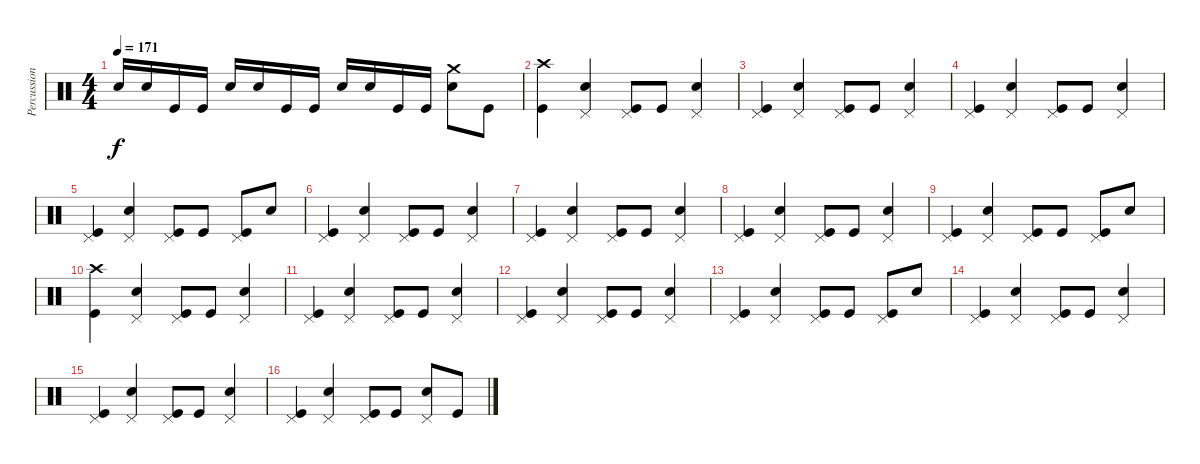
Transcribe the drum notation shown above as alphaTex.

\track ("Percussion" "Percussion") {instrument percussion}
\staff {score}
\articulation defaults
\ts (4 4)
\tempo 171
\clef neutral
\ks c "Electric Snare (hit)".16{dy f} "Electric Snare (hit)".16 "Kick (hit)".16 "Kick (hit)".16 "Electric Snare (hit)".16 "Electric Snare (hit)".16 "Kick (hit)".16 "Kick (hit)".16 "Electric Snare (hit)".16 "Electric Snare (hit)".16 "Kick (hit)".16 "Kick (hit)".16
("Crash medium (hit)" "Electric Snare (hit)").8 "Kick (hit)".8 |
("Crash high (hit)" "Kick (hit)").4 ("Pedal Hi-Hat (hit)" "Electric Snare (hit)").4 ("Pedal Hi-Hat (hit)" "Kick (hit)").8 "Kick (hit)".8 ("Pedal Hi-Hat (hit)" "Electric Snare (hit)").4 |
("Pedal Hi-Hat (hit)" "Kick (hit)").4 ("Pedal Hi-Hat (hit)" "Electric Snare (hit)").4 ("Pedal Hi-Hat (hit)" "Kick (hit)").8 "Kick (hit)".8 ("Pedal Hi-Hat (hit)" "Electric Snare (hit)").4 |
("Pedal Hi-Hat (hit)" "Kick (hit)").4 ("Pedal Hi-Hat (hit)" "Electric Snare (hit)").4 ("Pedal Hi-Hat (hit)" "Kick (hit)").8 "Kick (hit)".8 ("Pedal Hi-Hat (hit)" "Electric Snare (hit)").4 |
("Pedal Hi-Hat (hit)" "Kick (hit)").4 ("Pedal Hi-Hat (hit)" "Electric Snare (hit)").4 ("Pedal Hi-Hat (hit)" "Kick (hit)").8 "Kick (hit)".8 ("Pedal Hi-Hat (hit)" "Kick (hit)").8 "Electric Snare (hit)".8 |
("Pedal Hi-Hat (hit)" "Kick (hit)").4 ("Pedal Hi-Hat (hit)" "Electric Snare (hit)").4 ("Pedal Hi-Hat (hit)" "Kick (hit)").8 "Kick (hit)".8 ("Pedal Hi-Hat (hit)" "Electric Snare (hit)").4 |
("Pedal Hi-Hat (hit)" "Kick (hit)").4 ("Pedal Hi-Hat (hit)" "Electric Snare (hit)").4 ("Pedal Hi-Hat (hit)" "Kick (hit)").8 "Kick (hit)".8 ("Pedal Hi-Hat (hit)" "Electric Snare (hit)").4 |
("Pedal Hi-Hat (hit)" "Kick (hit)").4 ("Pedal Hi-Hat (hit)" "Electric Snare (hit)").4 ("Pedal Hi-Hat (hit)" "Kick (hit)").8 "Kick (hit)".8 ("Pedal Hi-Hat (hit)" "Electric Snare (hit)").4 |
("Pedal Hi-Hat (hit)" "Kick (hit)").4 ("Pedal Hi-Hat (hit)" "Electric Snare (hit)").4 ("Pedal Hi-Hat (hit)" "Kick (hit)").8 "Kick (hit)".8 ("Pedal Hi-Hat (hit)" "Kick (hit)").8 "Electric Snare (hit)".8 |
("Crash high (hit)" "Kick (hit)").4 ("Pedal Hi-Hat (hit)" "Electric Snare (hit)").4 ("Pedal Hi-Hat (hit)" "Kick (hit)").8 "Kick (hit)".8 ("Pedal Hi-Hat (hit)" "Electric Snare (hit)").4 |
("Pedal Hi-Hat (hit)" "Kick (hit)").4 ("Pedal Hi-Hat (hit)" "Electric Snare (hit)").4 ("Pedal Hi-Hat (hit)" "Kick (hit)").8 "Kick (hit)".8 ("Pedal Hi-Hat (hit)" "Electric Snare (hit)").4 |
("Pedal Hi-Hat (hit)" "Kick (hit)").4 ("Pedal Hi-Hat (hit)" "Electric Snare (hit)").4 ("Pedal Hi-Hat (hit)" "Kick (hit)").8 "Kick (hit)".8 ("Pedal Hi-Hat (hit)" "Electric Snare (hit)").4 |
("Pedal Hi-Hat (hit)" "Kick (hit)").4 ("Pedal Hi-Hat (hit)" "Electric Snare (hit)").4 ("Pedal Hi-Hat (hit)" "Kick (hit)").8 "Kick (hit)".8 ("Pedal Hi-Hat (hit)" "Kick (hit)").8 "Electric Snare (hit)".8 |
("Pedal Hi-Hat (hit)" "Kick (hit)").4 ("Pedal Hi-Hat (hit)" "Electric Snare (hit)").4 ("Pedal Hi-Hat (hit)" "Kick (hit)").8 "Kick (hit)".8 ("Pedal Hi-Hat (hit)" "Electric Snare (hit)").4 |
("Pedal Hi-Hat (hit)" "Kick (hit)").4 ("Pedal Hi-Hat (hit)" "Electric Snare (hit)").4 ("Pedal Hi-Hat (hit)" "Kick (hit)").8 "Kick (hit)".8 ("Pedal Hi-Hat (hit)" "Electric Snare (hit)").4 |
("Pedal Hi-Hat (hit)" "Kick (hit)").4 ("Pedal Hi-Hat (hit)" "Electric Snare (hit)").4 ("Pedal Hi-Hat (hit)" "Kick (hit)").8 "Kick (hit)".8 ("Pedal Hi-Hat (hit)" "Electric Snare (hit)").8 "Kick (hit)".8
